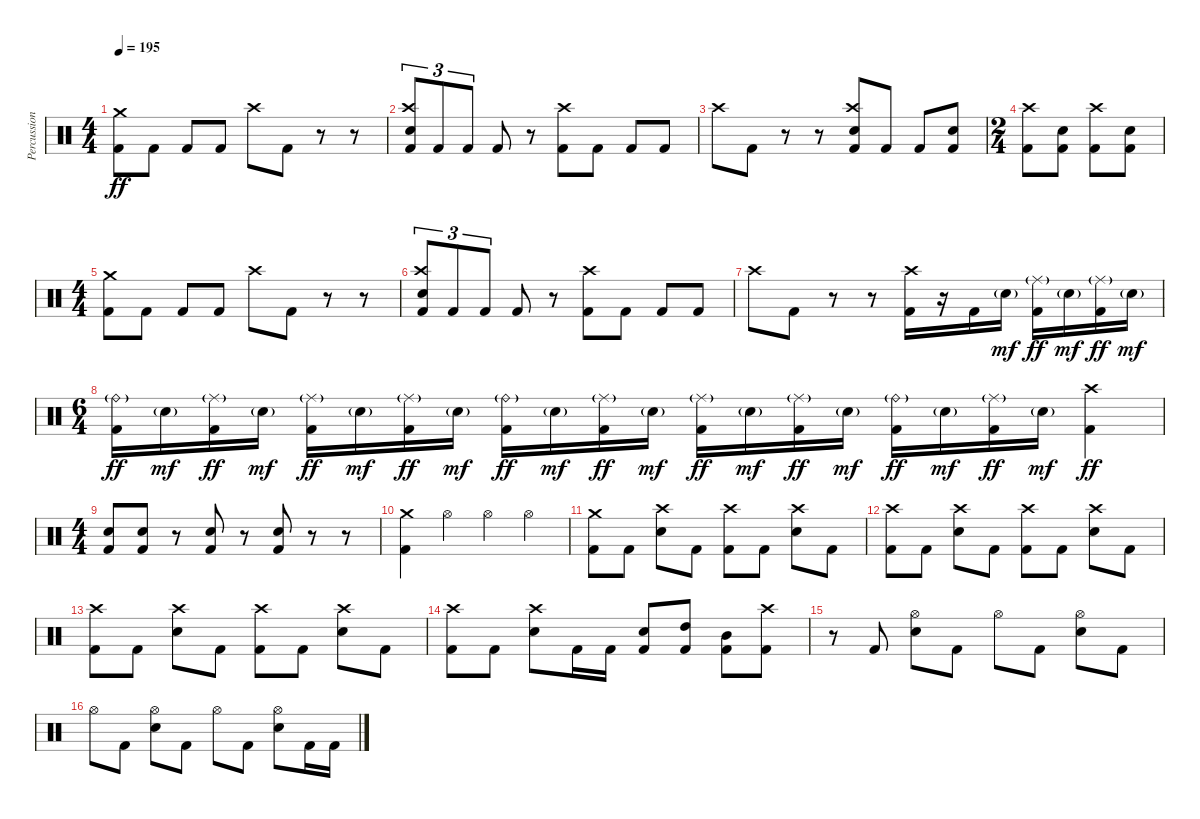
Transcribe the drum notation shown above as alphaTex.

\track ("Percussion" "Percussion") {instrument percussion}
\staff {score}
\articulation defaults
\ts (4 4)
\tempo 195
\clef neutral
\ks c
("Crash medium (hit)" "Kick (hit) 2").8{dy ff} "Kick (hit) 2".8 "Kick (hit) 2".8 "Kick (hit) 2".8 "Crash high (hit)".8 "Kick (hit) 2".8 r.8 r.8 |
("Crash high (hit)" "Electric Snare (hit)" "Kick (hit) 2").8{tu (3 2)} "Kick (hit) 2".8{tu (3 2)} "Kick (hit) 2".8{tu (3 2)} "Kick (hit) 2".8 r.8 ("Crash high (hit)" "Kick (hit) 2").8 "Kick (hit) 2".8 "Kick (hit) 2".8 "Kick (hit) 2".8 |
"Crash high (hit)".8 "Kick (hit) 2".8 r.8 r.8 ("Crash high (hit)" "Electric Snare (hit)" "Kick (hit) 2").8 "Kick (hit) 2".8 "Kick (hit) 2".8 ("Electric Snare (hit)" "Kick (hit) 2").8 |
\ts (2 4)
("Crash high (hit)" "Kick (hit) 2").8 ("Electric Snare (hit)" "Kick (hit) 2").8 ("Crash high (hit)" "Kick (hit) 2").8 ("Electric Snare (hit)" "Kick (hit) 2").8 |
\ts (4 4)
("Crash medium (hit)" "Kick (hit) 2").8 "Kick (hit) 2".8 "Kick (hit) 2".8 "Kick (hit) 2".8 "Crash high (hit)".8 "Kick (hit) 2".8 r.8 r.8 |
("Crash high (hit)" "Electric Snare (hit)" "Kick (hit) 2").8{tu (3 2)} "Kick (hit) 2".8{tu (3 2)} "Kick (hit) 2".8{tu (3 2)} "Kick (hit) 2".8 r.8 ("Crash high (hit)" "Kick (hit) 2").8 "Kick (hit) 2".8 "Kick (hit) 2".8 "Kick (hit) 2".8 |
"Crash high (hit)".8 "Kick (hit) 2".8 r.8 r.8 ("Crash high (hit)" "Kick (hit) 2").16 r.16 "Kick (hit) 2".16 "Electric Snare (hit)"{g}.16{dy mf} ("Ride (middle)"{g} "Kick (hit) 2").16{dy ff} "Electric Snare (hit)"{g}.16{dy mf} ("Ride (middle)"{g} "Kick (hit) 2").16{dy ff} "Electric Snare (hit)"{g}.16{dy mf} |
\ts (6 4)
("Ride (bell)"{g} "Kick (hit) 2").16{dy ff} "Electric Snare (hit)"{g}.16{dy mf} ("Ride (middle)"{g} "Kick (hit) 2").16{dy ff} "Electric Snare (hit)"{g}.16{dy mf} ("Ride (middle)"{g} "Kick (hit) 2").16{dy ff} "Electric Snare (hit)"{g}.16{dy mf} ("Ride (middle)"{g} "Kick (hit) 2").16{dy ff} "Electric Snare (hit)"{g}.16{dy mf} ("Ride (bell)"{g} "Kick (hit) 2").16{dy ff} "Electric Snare (hit)"{g}.16{dy mf} ("Ride (middle)"{g} "Kick (hit) 2").16{dy ff} "Electric Snare (hit)"{g}.16{dy mf} ("Ride (middle)"{g} "Kick (hit) 2").16{dy ff} "Electric Snare (hit)"{g}.16{dy mf} ("Ride (middle)"{g} "Kick (hit) 2").16{dy ff} "Electric Snare (hit)"{g}.16{dy mf} ("Ride (bell)"{g} "Kick (hit) 2").16{dy ff} "Electric Snare (hit)"{g}.16{dy mf} ("Ride (middle)"{g} "Kick (hit) 2").16{dy ff} "Electric Snare (hit)"{g}.16{dy mf} ("Crash high (hit)" "Kick (hit) 2").4{dy ff} |
\ts (4 4)
("Electric Snare (hit)" "Kick (hit) 2").8 ("Electric Snare (hit)" "Kick (hit) 2").8 r.8 ("Electric Snare (hit)" "Kick (hit) 2").8 r.8 ("Electric Snare (hit)" "Kick (hit) 2").8 r.8 r.8 |
("Crash medium (hit)" "Kick (hit) 2").4 "Hi-Hat (open)".4 "Hi-Hat (open)".4 "Hi-Hat (open)".4 |
("Crash medium (hit)" "Kick (hit) 2").8 "Kick (hit) 2".8 ("Crash high (hit)" "Electric Snare (hit)").8 "Kick (hit) 2".8 ("Crash high (hit)" "Kick (hit) 2").8 "Kick (hit) 2".8 ("Crash high (hit)" "Electric Snare (hit)").8 "Kick (hit) 2".8 |
("Crash high (hit)" "Kick (hit) 2").8 "Kick (hit) 2".8 ("Crash high (hit)" "Electric Snare (hit)").8 "Kick (hit) 2".8 ("Crash high (hit)" "Kick (hit) 2").8 "Kick (hit) 2".8 ("Crash high (hit)" "Electric Snare (hit)").8 "Kick (hit) 2".8 |
("Crash high (hit)" "Kick (hit) 2").8 "Kick (hit) 2".8 ("Crash high (hit)" "Electric Snare (hit)").8 "Kick (hit) 2".8 ("Crash high (hit)" "Kick (hit) 2").8 "Kick (hit) 2".8 ("Crash high (hit)" "Electric Snare (hit)").8 "Kick (hit) 2".8 |
("Crash high (hit)" "Kick (hit) 2").8 "Kick (hit) 2".8 ("Crash high (hit)" "Electric Snare (hit)").8 "Kick (hit) 2".16 "Kick (hit) 2".16 ("Electric Snare (hit)" "Kick (hit) 2").8 ("High Tom (hit)" "Kick (hit) 2").8 ("Mid Tom (hit)" "Kick (hit) 2").8 ("Crash high (hit)" "Kick (hit) 2").8 |
r.8 "Kick (hit) 2".8 ("Hi-Hat (open)" "Electric Snare (hit)").8 "Kick (hit) 2".8 "Hi-Hat (open)".8 "Kick (hit) 2".8 ("Hi-Hat (open)" "Electric Snare (hit)").8 "Kick (hit) 2".8 |
"Hi-Hat (open)".8 "Kick (hit) 2".8 ("Hi-Hat (open)" "Electric Snare (hit)").8 "Kick (hit) 2".8 "Hi-Hat (open)".8 "Kick (hit) 2".8 ("Hi-Hat (open)" "Electric Snare (hit)").8 "Kick (hit) 2".16 "Kick (hit) 2".16
